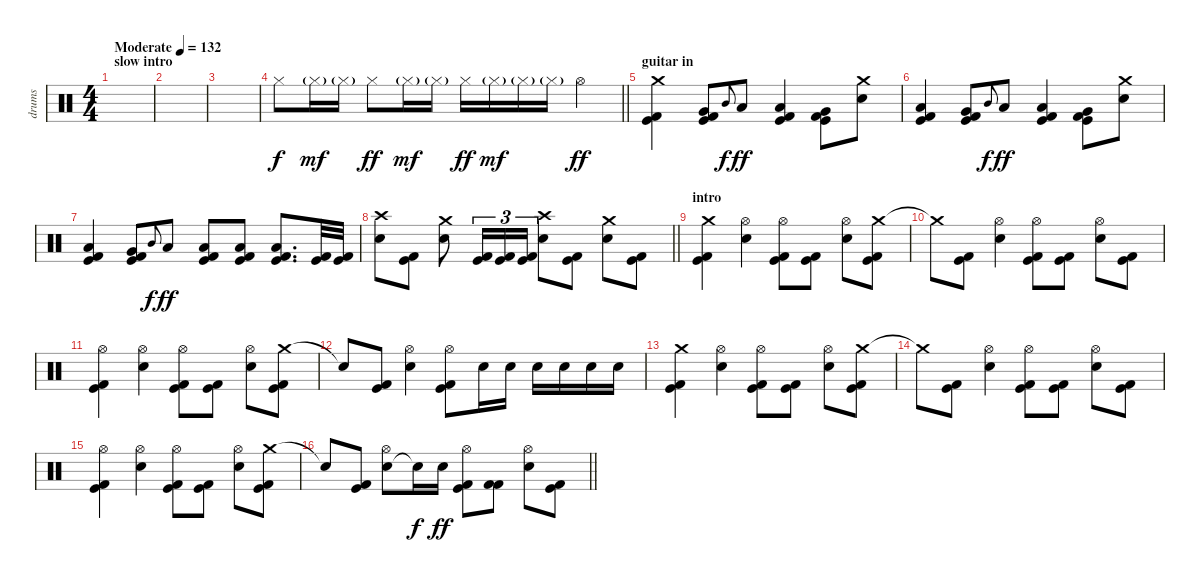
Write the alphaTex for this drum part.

\track ("drums" "drums") {instrument percussion}
\staff {score}
\articulation defaults
\ts (4 4)
\section ("" "slow intro")
\tempo (132 "Moderate")
\clef neutral
\ks c
|
|
|
\barLineRight lightlight "Hi-Hat (closed)".8 "Hi-Hat (closed)"{g}.16{dy mf} "Hi-Hat (closed)"{g}.16 "Hi-Hat (closed)".8{dy ff} "Hi-Hat (closed)"{g}.16{dy mf} "Hi-Hat (closed)"{g}.16 "Hi-Hat (closed)".16{dy ff} "Hi-Hat (closed)"{g}.16{dy mf} "Hi-Hat (closed)"{g}.16 "Hi-Hat (closed)"{g}.16 "Hi-Hat (open)".4{dy ff}
|
\section ("" "guitar in")
("Crash medium (hit)" "Kick (hit)" "Kick (hit) 2").4 ("Very Low Tom (hit)" "Kick (hit)" "Kick (hit) 2").8 "Mid Tom (hit)".8{gr onbeat dy f} "Low Tom (hit)".8{dy ff} ("Low Tom (hit)" "Kick (hit)" "Kick (hit) 2").4 ("Very Low Tom (hit)" "Kick (hit)" "Kick (hit) 2").8 ("Crash medium (hit)" "Electric Snare (hit)").8 |
("Low Tom (hit)" "Kick (hit)" "Kick (hit) 2").4 ("Very Low Tom (hit)" "Kick (hit)" "Kick (hit) 2").8 "Mid Tom (hit)".8{gr onbeat dy f} "Low Tom (hit)".8{dy ff} ("Low Tom (hit)" "Kick (hit)" "Kick (hit) 2").4 ("Very Low Tom (hit)" "Kick (hit)" "Kick (hit) 2").8 ("Crash medium (hit)" "Electric Snare (hit)").8 |
("Low Tom (hit)" "Kick (hit)" "Kick (hit) 2").4 ("Very Low Tom (hit)" "Kick (hit)" "Kick (hit) 2").8 "Mid Tom (hit)".8{gr onbeat dy f} "Low Tom (hit)".8{dy ff} ("Low Tom (hit)" "Kick (hit)" "Kick (hit) 2").8 ("Low Tom (hit)" "Kick (hit)" "Kick (hit) 2").8 ("Low Tom (hit)" "Kick (hit)" "Kick (hit) 2").8{d} ("Kick (hit)" "Kick (hit) 2").32 ("Kick (hit)" "Kick (hit) 2").32 |
\barLineRight lightlight
("Crash high (hit)" "Electric Snare (hit)").8 ("Kick (hit)" "Kick (hit) 2").8 ("Crash medium (hit)" "Electric Snare (hit)").8 ("Kick (hit)" "Kick (hit) 2").16{tu (3 2)} ("Kick (hit)" "Kick (hit) 2").16{tu (3 2)} ("Kick (hit)" "Kick (hit) 2").16{tu (3 2)} ("Crash high (hit)" "Electric Snare (hit)").8 ("Kick (hit)" "Kick (hit) 2").8 ("Crash medium (hit)" "Electric Snare (hit)").8 ("Kick (hit)" "Kick (hit) 2").8 |
\section ("" "intro")
("Crash medium (hit)" "Kick (hit)" "Kick (hit) 2").4 ("Electric Snare (hit)" "Hi-Hat (open)").4 ("Hi-Hat (open)" "Kick (hit)" "Kick (hit) 2").8 ("Kick (hit)" "Kick (hit) 2").8 ("Electric Snare (hit)" "Hi-Hat (open)").8 ("Crash medium (hit)" "Kick (hit)" "Kick (hit) 2").8 |
"Crash medium (hit)"{t}.8 ("Kick (hit)" "Kick (hit) 2").8 ("Electric Snare (hit)" "Hi-Hat (open)").4 ("Hi-Hat (open)" "Kick (hit)" "Kick (hit) 2").8 ("Kick (hit)" "Kick (hit) 2").8 ("Electric Snare (hit)" "Hi-Hat (open)").8 ("Kick (hit)" "Kick (hit) 2").8 |
("Hi-Hat (open)" "Kick (hit)" "Kick (hit) 2").4 ("Electric Snare (hit)" "Hi-Hat (open)").4 ("Hi-Hat (open)" "Kick (hit)" "Kick (hit) 2").8 ("Kick (hit)" "Kick (hit) 2").8 ("Electric Snare (hit)" "Hi-Hat (open)").8 ("Crash medium (hit)" "Kick (hit)" "Kick (hit) 2").8 |
"Snare (hit)"{t}.8 ("Kick (hit)" "Kick (hit) 2").8 ("Electric Snare (hit)" "Hi-Hat (open)").4 ("Hi-Hat (open)" "Kick (hit)" "Kick (hit) 2").8 "Electric Snare (hit)".16 "Electric Snare (hit)".16 "Electric Snare (hit)".16 "Electric Snare (hit)".16 "Electric Snare (hit)".16 "Electric Snare (hit)".16 |
("Crash medium (hit)" "Kick (hit)" "Kick (hit) 2").4 ("Electric Snare (hit)" "Hi-Hat (open)").4 ("Hi-Hat (open)" "Kick (hit)" "Kick (hit) 2").8 ("Kick (hit)" "Kick (hit) 2").8 ("Electric Snare (hit)" "Hi-Hat (open)").8 ("Crash medium (hit)" "Kick (hit)" "Kick (hit) 2").8 |
"Crash medium (hit)"{t}.8 ("Kick (hit)" "Kick (hit) 2").8 ("Electric Snare (hit)" "Hi-Hat (open)").4 ("Hi-Hat (open)" "Kick (hit)" "Kick (hit) 2").8 ("Kick (hit)" "Kick (hit) 2").8 ("Electric Snare (hit)" "Hi-Hat (open)").8 ("Kick (hit)" "Kick (hit) 2").8 |
("Hi-Hat (open)" "Kick (hit)" "Kick (hit) 2").4 ("Electric Snare (hit)" "Hi-Hat (open)").4 ("Hi-Hat (open)" "Kick (hit)" "Kick (hit) 2").8 ("Kick (hit)" "Kick (hit) 2").8 ("Electric Snare (hit)" "Hi-Hat (open)").8 ("Crash medium (hit)" "Kick (hit)" "Kick (hit) 2").8 |
\barLineRight lightlight "Snare (hit)"{t}.8
("Kick (hit)" "Kick (hit) 2").8 ("Electric Snare (hit)" "Hi-Hat (open)").8 "Electric Snare (hit)"{t}.16{dy f} "Electric Snare (hit)".16{dy ff} ("Hi-Hat (open)" "Kick (hit)" "Kick (hit) 2").8 ("Kick (hit) 2" "Kick (hit) 2").8 ("Electric Snare (hit)" "Hi-Hat (open)").8 ("Kick (hit)" "Kick (hit) 2").8
